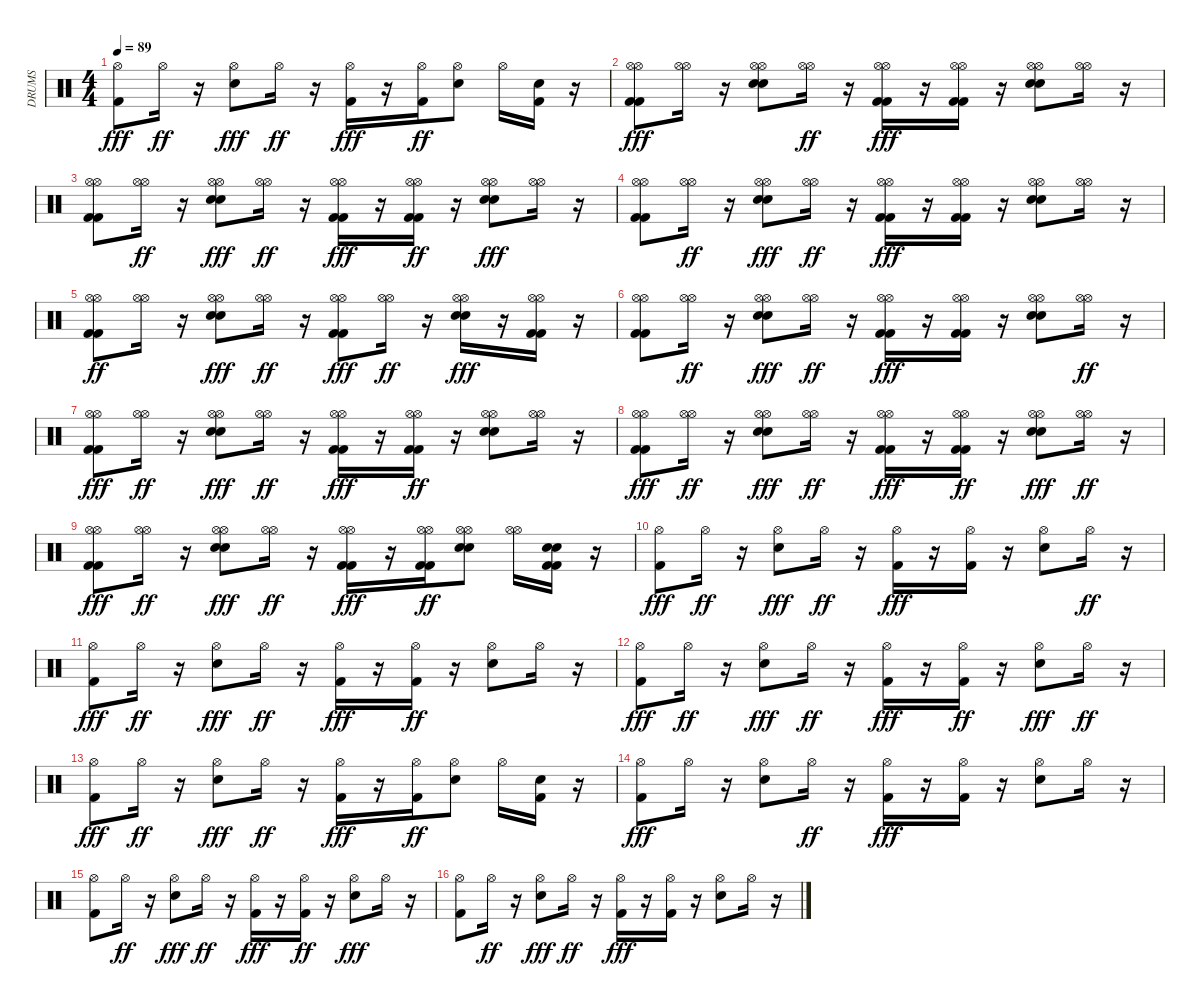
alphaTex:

\track ("DRUMS" "DRUMS") {instrument percussion}
\staff {score}
\articulation defaults
\ts (4 4)
\tempo 89
\clef neutral
\ks c
("Hi-Hat (open)" "Kick (hit) 2").8{dy fff} "Hi-Hat (open)".16{dy ff} r.16 ("Electric Snare (hit)" "Hi-Hat (open)").8{dy fff} "Hi-Hat (open)".16{dy ff} r.16 ("Hi-Hat (open)" "Kick (hit) 2").16{dy fff} r.16 ("Kick (hit) 2" "Hi-Hat (open)").16{dy ff} ("Electric Snare (hit)" "Hi-Hat (open)").8 "Hi-Hat (open)".16 ("Kick (hit) 2" "Snare (hit) 2").16 r.16 |
("Hi-Hat (open)" "Kick (hit) 2" "Hi-Hat (open)" "Kick (hit) 2").8{dy fff} ("Hi-Hat (open)" "Hi-Hat (open)").16 r.16 ("Electric Snare (hit)" "Hi-Hat (open)" "Electric Snare (hit)" "Hi-Hat (open)").8 ("Hi-Hat (open)" "Hi-Hat (open)").16{dy ff} r.16 ("Hi-Hat (open)" "Kick (hit) 2" "Hi-Hat (open)" "Kick (hit) 2").16{dy fff} r.16 ("Kick (hit) 2" "Hi-Hat (open)" "Kick (hit) 2" "Hi-Hat (open)").16 r.16 ("Hi-Hat (open)" "Electric Snare (hit)" "Hi-Hat (open)" "Electric Snare (hit)").8 ("Hi-Hat (open)" "Hi-Hat (open)").16 r.16 |
("Hi-Hat (open)" "Kick (hit) 2" "Hi-Hat (open)" "Kick (hit) 2").8 ("Hi-Hat (open)" "Hi-Hat (open)").16{dy ff} r.16 ("Hi-Hat (open)" "Electric Snare (hit)" "Hi-Hat (open)" "Electric Snare (hit)").8{dy fff} ("Hi-Hat (open)" "Hi-Hat (open)").16{dy ff} r.16 ("Hi-Hat (open)" "Kick (hit) 2" "Hi-Hat (open)" "Kick (hit) 2").16{dy fff} r.16 ("Kick (hit) 2" "Hi-Hat (open)" "Kick (hit) 2" "Hi-Hat (open)").16{dy ff} r.16 ("Electric Snare (hit)" "Hi-Hat (open)" "Electric Snare (hit)" "Hi-Hat (open)").8{dy fff} ("Hi-Hat (open)" "Hi-Hat (open)").16 r.16 |
("Hi-Hat (open)" "Kick (hit) 2" "Hi-Hat (open)" "Kick (hit) 2").8 ("Hi-Hat (open)" "Hi-Hat (open)").16{dy ff} r.16 ("Hi-Hat (open)" "Electric Snare (hit)" "Hi-Hat (open)" "Electric Snare (hit)").8{dy fff} ("Hi-Hat (open)" "Hi-Hat (open)").16{dy ff} r.16 ("Hi-Hat (open)" "Kick (hit) 2" "Hi-Hat (open)" "Kick (hit) 2").16{dy fff} r.16 ("Kick (hit) 2" "Hi-Hat (open)" "Kick (hit) 2" "Hi-Hat (open)").16 r.16 ("Hi-Hat (open)" "Electric Snare (hit)" "Hi-Hat (open)" "Electric Snare (hit)").8 ("Hi-Hat (open)" "Hi-Hat (open)").16 r.16 |
("Hi-Hat (open)" "Kick (hit) 2" "Hi-Hat (open)" "Kick (hit) 2").8{dy ff} ("Hi-Hat (open)" "Hi-Hat (open)").16 r.16 ("Electric Snare (hit)" "Hi-Hat (open)" "Electric Snare (hit)" "Hi-Hat (open)").8{dy fff} ("Hi-Hat (open)" "Hi-Hat (open)").16{dy ff} r.16 ("Hi-Hat (open)" "Kick (hit) 2" "Hi-Hat (open)" "Kick (hit) 2").8{dy fff} ("Hi-Hat (open)" "Hi-Hat (open)").16{dy ff} r.16 ("Electric Snare (hit)" "Hi-Hat (open)" "Electric Snare (hit)" "Hi-Hat (open)").16{dy fff} r.16 ("Hi-Hat (open)" "Kick (hit) 2" "Hi-Hat (open)" "Kick (hit) 2").16 r.16 |
("Hi-Hat (open)" "Kick (hit) 2" "Hi-Hat (open)" "Kick (hit) 2").8 ("Hi-Hat (open)" "Hi-Hat (open)").16{dy ff} r.16 ("Hi-Hat (open)" "Electric Snare (hit)" "Hi-Hat (open)" "Electric Snare (hit)").8{dy fff} ("Hi-Hat (open)" "Hi-Hat (open)").16{dy ff} r.16 ("Hi-Hat (open)" "Kick (hit) 2" "Hi-Hat (open)" "Kick (hit) 2").16{dy fff} r.16 ("Hi-Hat (open)" "Kick (hit) 2" "Hi-Hat (open)" "Kick (hit) 2").16 r.16 ("Hi-Hat (open)" "Electric Snare (hit)" "Hi-Hat (open)" "Electric Snare (hit)").8 ("Hi-Hat (open)" "Hi-Hat (open)").16{dy ff} r.16 |
("Hi-Hat (open)" "Kick (hit) 2" "Hi-Hat (open)" "Kick (hit) 2").8{dy fff} ("Hi-Hat (open)" "Hi-Hat (open)").16{dy ff} r.16 ("Electric Snare (hit)" "Hi-Hat (open)" "Electric Snare (hit)" "Hi-Hat (open)").8{dy fff} ("Hi-Hat (open)" "Hi-Hat (open)").16{dy ff} r.16 ("Hi-Hat (open)" "Kick (hit) 2" "Hi-Hat (open)" "Kick (hit) 2").16{dy fff} r.16 ("Hi-Hat (open)" "Kick (hit) 2" "Hi-Hat (open)" "Kick (hit) 2").16{dy ff} r.16 ("Electric Snare (hit)" "Hi-Hat (open)" "Electric Snare (hit)" "Hi-Hat (open)").8 ("Hi-Hat (open)" "Hi-Hat (open)").16 r.16 |
("Hi-Hat (open)" "Kick (hit) 2" "Hi-Hat (open)" "Kick (hit) 2").8{dy fff} ("Hi-Hat (open)" "Hi-Hat (open)").16{dy ff} r.16 ("Electric Snare (hit)" "Hi-Hat (open)" "Electric Snare (hit)" "Hi-Hat (open)").8{dy fff} ("Hi-Hat (open)" "Hi-Hat (open)").16{dy ff} r.16 ("Hi-Hat (open)" "Kick (hit) 2" "Hi-Hat (open)" "Kick (hit) 2").16{dy fff} r.16 ("Hi-Hat (open)" "Kick (hit) 2" "Hi-Hat (open)" "Kick (hit) 2").16{dy ff} r.16 ("Electric Snare (hit)" "Hi-Hat (open)" "Electric Snare (hit)" "Hi-Hat (open)").8{dy fff} ("Hi-Hat (open)" "Hi-Hat (open)").16{dy ff} r.16 |
("Hi-Hat (open)" "Kick (hit) 2" "Hi-Hat (open)" "Kick (hit) 2").8{dy fff} ("Hi-Hat (open)" "Hi-Hat (open)").16{dy ff} r.16 ("Electric Snare (hit)" "Hi-Hat (open)" "Electric Snare (hit)" "Hi-Hat (open)").8{dy fff} ("Hi-Hat (open)" "Hi-Hat (open)").16{dy ff} r.16 ("Hi-Hat (open)" "Kick (hit) 2" "Hi-Hat (open)" "Kick (hit) 2").16{dy fff} r.16 ("Kick (hit) 2" "Hi-Hat (open)" "Kick (hit) 2" "Hi-Hat (open)").16{dy ff} ("Electric Snare (hit)" "Hi-Hat (open)" "Electric Snare (hit)" "Hi-Hat (open)").8 ("Hi-Hat (open)" "Hi-Hat (open)").16 ("Kick (hit) 2" "Snare (hit) 2" "Kick (hit) 2" "Snare (hit) 2").16 r.16 |
("Hi-Hat (open)" "Kick (hit) 2").8{dy fff} "Hi-Hat (open)".16{dy ff} r.16 ("Hi-Hat (open)" "Electric Snare (hit)").8{dy fff} "Hi-Hat (open)".16{dy ff} r.16 ("Hi-Hat (open)" "Kick (hit) 2").16{dy fff} r.16 ("Hi-Hat (open)" "Kick (hit) 2").16 r.16 ("Hi-Hat (open)" "Electric Snare (hit)").8 "Hi-Hat (open)".16{dy ff} r.16 |
("Hi-Hat (open)" "Kick (hit) 2").8{dy fff} "Hi-Hat (open)".16{dy ff} r.16 ("Electric Snare (hit)" "Hi-Hat (open)").8{dy fff} "Hi-Hat (open)".16{dy ff} r.16 ("Hi-Hat (open)" "Kick (hit) 2").16{dy fff} r.16 ("Hi-Hat (open)" "Kick (hit) 2").16{dy ff} r.16 ("Electric Snare (hit)" "Hi-Hat (open)").8 "Hi-Hat (open)".16 r.16 |
("Hi-Hat (open)" "Kick (hit) 2").8{dy fff} "Hi-Hat (open)".16{dy ff} r.16 ("Electric Snare (hit)" "Hi-Hat (open)").8{dy fff} "Hi-Hat (open)".16{dy ff} r.16 ("Hi-Hat (open)" "Kick (hit) 2").16{dy fff} r.16 ("Hi-Hat (open)" "Kick (hit) 2").16{dy ff} r.16 ("Electric Snare (hit)" "Hi-Hat (open)").8{dy fff} "Hi-Hat (open)".16{dy ff} r.16 |
("Hi-Hat (open)" "Kick (hit) 2").8{dy fff} "Hi-Hat (open)".16{dy ff} r.16 ("Electric Snare (hit)" "Hi-Hat (open)").8{dy fff} "Hi-Hat (open)".16{dy ff} r.16 ("Hi-Hat (open)" "Kick (hit) 2").16{dy fff} r.16 ("Kick (hit) 2" "Hi-Hat (open)").16{dy ff} ("Electric Snare (hit)" "Hi-Hat (open)").8 "Hi-Hat (open)".16 ("Kick (hit) 2" "Snare (hit) 2").16 r.16 |
("Hi-Hat (open)" "Kick (hit) 2").8{dy fff} "Hi-Hat (open)".16 r.16 ("Electric Snare (hit)" "Hi-Hat (open)").8 "Hi-Hat (open)".16{dy ff} r.16 ("Hi-Hat (open)" "Kick (hit) 2").16{dy fff} r.16 ("Kick (hit) 2" "Hi-Hat (open)").16 r.16 ("Hi-Hat (open)" "Electric Snare (hit)").8 "Hi-Hat (open)".16 r.16 |
("Hi-Hat (open)" "Kick (hit) 2").8 "Hi-Hat (open)".16{dy ff} r.16 ("Hi-Hat (open)" "Electric Snare (hit)").8{dy fff} "Hi-Hat (open)".16{dy ff} r.16 ("Hi-Hat (open)" "Kick (hit) 2").16{dy fff} r.16 ("Kick (hit) 2" "Hi-Hat (open)").16{dy ff} r.16 ("Electric Snare (hit)" "Hi-Hat (open)").8{dy fff} "Hi-Hat (open)".16 r.16 |
("Hi-Hat (open)" "Kick (hit) 2").8 "Hi-Hat (open)".16{dy ff} r.16 ("Hi-Hat (open)" "Electric Snare (hit)").8{dy fff} "Hi-Hat (open)".16{dy ff} r.16 ("Hi-Hat (open)" "Kick (hit) 2").16{dy fff} r.16 ("Kick (hit) 2" "Hi-Hat (open)").16 r.16 ("Hi-Hat (open)" "Electric Snare (hit)").8 "Hi-Hat (open)".16 r.16
